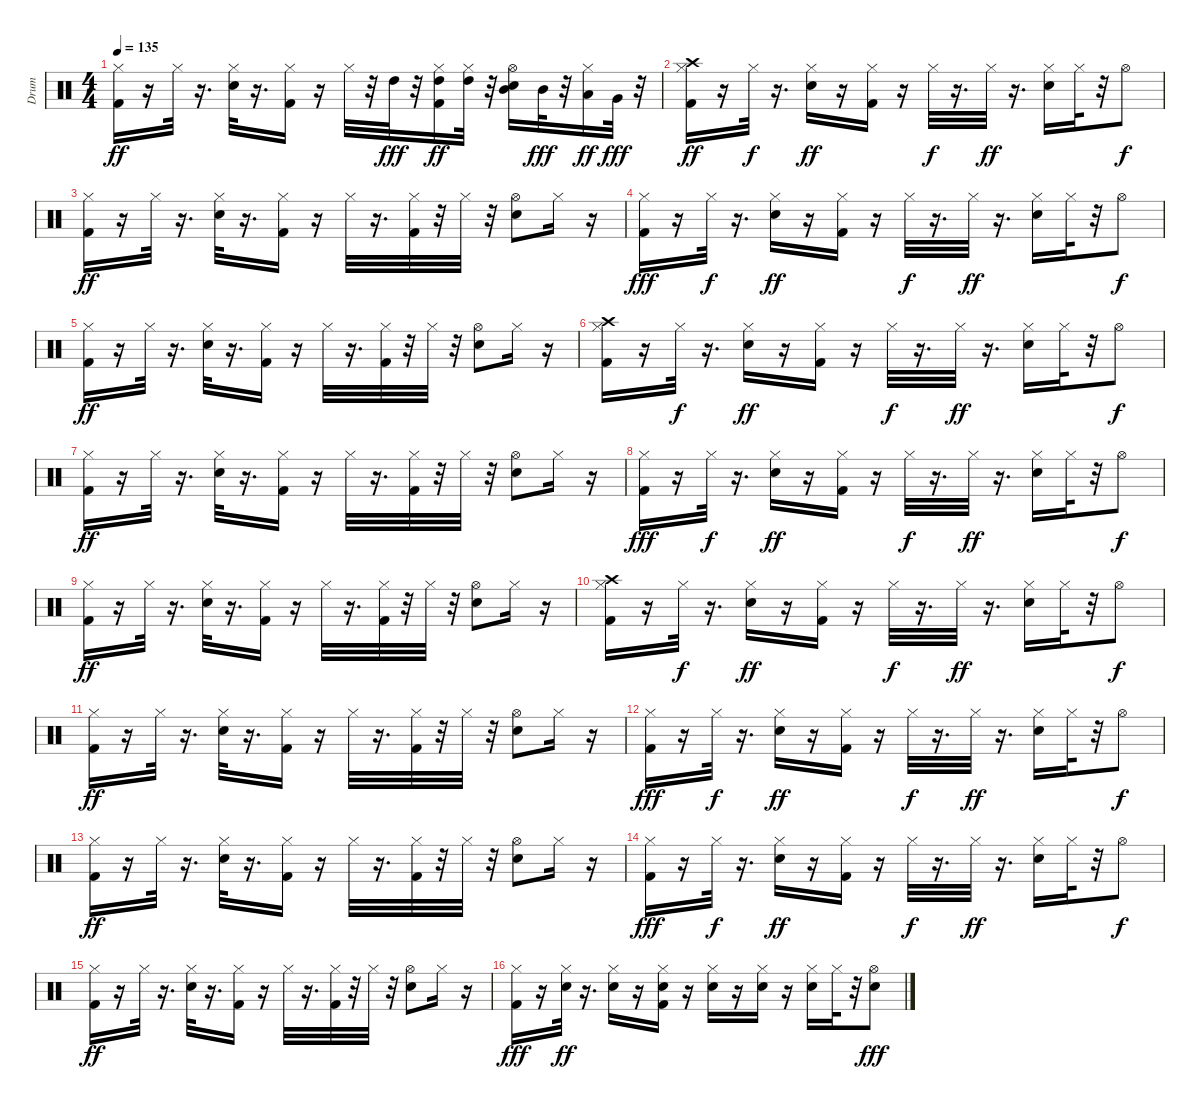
\track ("Drum" "Drum") {instrument percussion}
\staff {score}
\articulation defaults
\ts (4 4)
\tempo 135
\clef neutral
\ks c
("Kick (hit) 2" "Hi-Hat (closed)").16{dy ff} r.16 "Hi-Hat (closed)".32 r.16{d} ("Snare (hit) 2" "Hi-Hat (closed)").32 r.16{d} ("Kick (hit) 2" "Hi-Hat (closed)").16 r.16 "Hi-Hat (closed)".32 r.32 "High Tom (hit)".32{dy fff} r.32 ("High Tom (hit)" "Kick (hit) 2" "Hi-Hat (closed)").16{dy ff} ("High Tom (hit)" "Hi-Hat (closed)").32 r.32 ("Mid Tom (hit)" "Snare (hit) 2" "Hi-Hat (open)").16 "Mid Tom (hit)".32{dy fff} r.32 ("Low Tom (hit)" "Hi-Hat (closed)").16{dy ff} "Very Low Tom (hit)".32{dy fff} r.32 |
("Kick (hit) 2" "Hi-Hat (closed)" "Crash high (hit)").16{dy ff} r.16 "Hi-Hat (closed)".32{dy f} r.16{d} ("Snare (hit) 2" "Hi-Hat (closed)").16{dy ff} r.16 ("Kick (hit) 2" "Hi-Hat (closed)").16 r.16 "Hi-Hat (closed)".32{dy f} r.16{d} "Hi-Hat (closed)".32{dy ff} r.16{d} ("Snare (hit) 2" "Hi-Hat (closed)").16 "Hi-Hat (closed)".32 r.32 "Hi-Hat (open)".8{dy f} |
("Kick (hit) 2" "Hi-Hat (closed)").16{dy ff} r.16 "Hi-Hat (closed)".32 r.16{d} ("Snare (hit) 2" "Hi-Hat (closed)").32 r.16{d} ("Kick (hit) 2" "Hi-Hat (closed)").16 r.16 "Hi-Hat (closed)".32 r.16{d} ("Kick (hit) 2" "Hi-Hat (closed)").32 r.32 "Hi-Hat (closed)".32 r.32 ("Snare (hit) 2" "Hi-Hat (open)").8 "Hi-Hat (closed)".16 r.16 |
("Kick (hit) 2" "Hi-Hat (closed)").16{dy fff} r.16 "Hi-Hat (closed)".32{dy f} r.16{d} ("Snare (hit) 2" "Hi-Hat (closed)").16{dy ff} r.16 ("Kick (hit) 2" "Hi-Hat (closed)").16 r.16 "Hi-Hat (closed)".32{dy f} r.16{d} "Hi-Hat (closed)".32{dy ff} r.16{d} ("Snare (hit) 2" "Hi-Hat (closed)").16 "Hi-Hat (closed)".32 r.32 "Hi-Hat (open)".8{dy f} |
("Kick (hit) 2" "Hi-Hat (closed)").16{dy ff} r.16 "Hi-Hat (closed)".32 r.16{d} ("Snare (hit) 2" "Hi-Hat (closed)").32 r.16{d} ("Kick (hit) 2" "Hi-Hat (closed)").16 r.16 "Hi-Hat (closed)".32 r.16{d} ("Kick (hit) 2" "Hi-Hat (closed)").32 r.32 "Hi-Hat (closed)".32 r.32 ("Snare (hit) 2" "Hi-Hat (open)").8 "Hi-Hat (closed)".16 r.16 |
("Kick (hit) 2" "Hi-Hat (closed)" "Crash high (hit)").16 r.16 "Hi-Hat (closed)".32{dy f} r.16{d} ("Snare (hit) 2" "Hi-Hat (closed)").16{dy ff} r.16 ("Kick (hit) 2" "Hi-Hat (closed)").16 r.16 "Hi-Hat (closed)".32{dy f} r.16{d} "Hi-Hat (closed)".32{dy ff} r.16{d} ("Snare (hit) 2" "Hi-Hat (closed)").16 "Hi-Hat (closed)".32 r.32 "Hi-Hat (open)".8{dy f} |
("Kick (hit) 2" "Hi-Hat (closed)").16{dy ff} r.16 "Hi-Hat (closed)".32 r.16{d} ("Snare (hit) 2" "Hi-Hat (closed)").32 r.16{d} ("Kick (hit) 2" "Hi-Hat (closed)").16 r.16 "Hi-Hat (closed)".32 r.16{d} ("Kick (hit) 2" "Hi-Hat (closed)").32 r.32 "Hi-Hat (closed)".32 r.32 ("Snare (hit) 2" "Hi-Hat (open)").8 "Hi-Hat (closed)".16 r.16 |
("Kick (hit) 2" "Hi-Hat (closed)").16{dy fff} r.16 "Hi-Hat (closed)".32{dy f} r.16{d} ("Snare (hit) 2" "Hi-Hat (closed)").16{dy ff} r.16 ("Kick (hit) 2" "Hi-Hat (closed)").16 r.16 "Hi-Hat (closed)".32{dy f} r.16{d} "Hi-Hat (closed)".32{dy ff} r.16{d} ("Snare (hit) 2" "Hi-Hat (closed)").16 "Hi-Hat (closed)".32 r.32 "Hi-Hat (open)".8{dy f} |
("Kick (hit) 2" "Hi-Hat (closed)").16{dy ff} r.16 "Hi-Hat (closed)".32 r.16{d} ("Snare (hit) 2" "Hi-Hat (closed)").32 r.16{d} ("Kick (hit) 2" "Hi-Hat (closed)").16 r.16 "Hi-Hat (closed)".32 r.16{d} ("Kick (hit) 2" "Hi-Hat (closed)").32 r.32 "Hi-Hat (closed)".32 r.32 ("Snare (hit) 2" "Hi-Hat (open)").8 "Hi-Hat (closed)".16 r.16 |
("Kick (hit) 2" "Hi-Hat (closed)" "Crash high (hit)").16 r.16 "Hi-Hat (closed)".32{dy f} r.16{d} ("Snare (hit) 2" "Hi-Hat (closed)").16{dy ff} r.16 ("Kick (hit) 2" "Hi-Hat (closed)").16 r.16 "Hi-Hat (closed)".32{dy f} r.16{d} "Hi-Hat (closed)".32{dy ff} r.16{d} ("Snare (hit) 2" "Hi-Hat (closed)").16 "Hi-Hat (closed)".32 r.32 "Hi-Hat (open)".8{dy f} |
("Kick (hit) 2" "Hi-Hat (closed)").16{dy ff} r.16 "Hi-Hat (closed)".32 r.16{d} ("Snare (hit) 2" "Hi-Hat (closed)").32 r.16{d} ("Kick (hit) 2" "Hi-Hat (closed)").16 r.16 "Hi-Hat (closed)".32 r.16{d} ("Kick (hit) 2" "Hi-Hat (closed)").32 r.32 "Hi-Hat (closed)".32 r.32 ("Snare (hit) 2" "Hi-Hat (open)").8 "Hi-Hat (closed)".16 r.16 |
("Kick (hit) 2" "Hi-Hat (closed)").16{dy fff} r.16 "Hi-Hat (closed)".32{dy f} r.16{d} ("Snare (hit) 2" "Hi-Hat (closed)").16{dy ff} r.16 ("Kick (hit) 2" "Hi-Hat (closed)").16 r.16 "Hi-Hat (closed)".32{dy f} r.16{d} "Hi-Hat (closed)".32{dy ff} r.16{d} ("Snare (hit) 2" "Hi-Hat (closed)").16 "Hi-Hat (closed)".32 r.32 "Hi-Hat (open)".8{dy f} |
("Kick (hit) 2" "Hi-Hat (closed)").16{dy ff} r.16 "Hi-Hat (closed)".32 r.16{d} ("Snare (hit) 2" "Hi-Hat (closed)").32 r.16{d} ("Kick (hit) 2" "Hi-Hat (closed)").16 r.16 "Hi-Hat (closed)".32 r.16{d} ("Kick (hit) 2" "Hi-Hat (closed)").32 r.32 "Hi-Hat (closed)".32 r.32 ("Snare (hit) 2" "Hi-Hat (open)").8 "Hi-Hat (closed)".16 r.16 |
("Kick (hit) 2" "Hi-Hat (closed)").16{dy fff} r.16 "Hi-Hat (closed)".32{dy f} r.16{d} ("Snare (hit) 2" "Hi-Hat (closed)").16{dy ff} r.16 ("Kick (hit) 2" "Hi-Hat (closed)").16 r.16 "Hi-Hat (closed)".32{dy f} r.16{d} "Hi-Hat (closed)".32{dy ff} r.16{d} ("Snare (hit) 2" "Hi-Hat (closed)").16 "Hi-Hat (closed)".32 r.32 "Hi-Hat (open)".8{dy f} |
("Kick (hit) 2" "Hi-Hat (closed)").16{dy ff} r.16 "Hi-Hat (closed)".32 r.16{d} ("Snare (hit) 2" "Hi-Hat (closed)").32 r.16{d} ("Kick (hit) 2" "Hi-Hat (closed)").16 r.16 "Hi-Hat (closed)".32 r.16{d} ("Kick (hit) 2" "Hi-Hat (closed)").32 r.32 "Hi-Hat (closed)".32 r.32 ("Snare (hit) 2" "Hi-Hat (open)").8 "Hi-Hat (closed)".16 r.16 |
("Kick (hit) 2" "Hi-Hat (closed)").16{dy fff} r.16 ("Snare (hit) 2" "Hi-Hat (closed)").32{dy ff} r.16{d} ("Snare (hit) 2" "Hi-Hat (closed)").16 r.16 ("Snare (hit) 2" "Kick (hit) 2" "Hi-Hat (closed)").16 r.16 ("Snare (hit) 2" "Hi-Hat (closed)").16 r.16 ("Snare (hit) 2" "Hi-Hat (closed)").16 r.16 ("Snare (hit) 2" "Hi-Hat (closed)").16 "Hi-Hat (closed)".32 r.32 ("Snare (hit) 2" "Hi-Hat (open)").8{dy fff}
